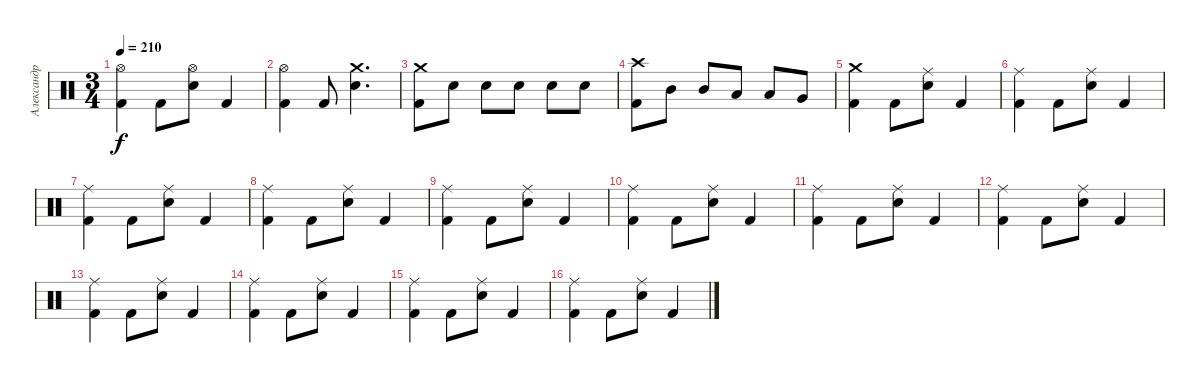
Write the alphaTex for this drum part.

\track ("Александр Манякин" "Александр ") {instrument percussion}
\staff {score}
\articulation defaults
\ts (3 4)
\tempo 210
\clef neutral
\ks c
("Hi-Hat (open)" "Kick (hit) 2").4{dy f} "Kick (hit) 2".8 ("Hi-Hat (open)" "Snare (hit) 2").8 "Kick (hit) 2".4 |
("Hi-Hat (open)" "Kick (hit) 2").4 "Kick (hit) 2".8 ("Crash medium (hit)" "Snare (hit) 2").4{d} |
("Crash medium (hit)" "Kick (hit) 2").8 "Snare (hit) 2".8 "Snare (hit) 2".8 "Snare (hit) 2".8 "Snare (hit) 2".8 "Snare (hit) 2".8 |
("Crash high (hit)" "Kick (hit) 2").8 "Mid Tom (hit)".8 "Mid Tom (hit)".8 "Low Tom (hit)".8 "Low Tom (hit)".8 "Very Low Tom (hit)".8 |
("Crash medium (hit)" "Kick (hit) 2").4 "Kick (hit) 2".8 ("Ride (middle)" "Snare (hit) 2").8 "Kick (hit) 2".4 |
("Ride (middle)" "Kick (hit) 2").4 "Kick (hit) 2".8 ("Ride (middle)" "Snare (hit) 2").8 "Kick (hit) 2".4 |
("Ride (middle)" "Kick (hit) 2").4 "Kick (hit) 2".8 ("Ride (middle)" "Snare (hit) 2").8 "Kick (hit) 2".4 |
("Ride (middle)" "Kick (hit) 2").4 "Kick (hit) 2".8 ("Ride (middle)" "Snare (hit) 2").8 "Kick (hit) 2".4 |
("Ride (middle)" "Kick (hit) 2").4 "Kick (hit) 2".8 ("Ride (middle)" "Snare (hit) 2").8 "Kick (hit) 2".4 |
("Ride (middle)" "Kick (hit) 2").4 "Kick (hit) 2".8 ("Ride (middle)" "Snare (hit) 2").8 "Kick (hit) 2".4 |
("Ride (middle)" "Kick (hit) 2").4 "Kick (hit) 2".8 ("Ride (middle)" "Snare (hit) 2").8 "Kick (hit) 2".4 |
("Ride (middle)" "Kick (hit) 2").4 "Kick (hit) 2".8 ("Ride (middle)" "Snare (hit) 2").8 "Kick (hit) 2".4 |
("Ride (middle)" "Kick (hit) 2").4 "Kick (hit) 2".8 ("Ride (middle)" "Snare (hit) 2").8 "Kick (hit) 2".4 |
("Ride (middle)" "Kick (hit) 2").4 "Kick (hit) 2".8 ("Ride (middle)" "Snare (hit) 2").8 "Kick (hit) 2".4 |
("Ride (middle)" "Kick (hit) 2").4 "Kick (hit) 2".8 ("Ride (middle)" "Snare (hit) 2").8 "Kick (hit) 2".4 |
("Ride (middle)" "Kick (hit) 2").4 "Kick (hit) 2".8 ("Ride (middle)" "Snare (hit) 2").8 "Kick (hit) 2".4
